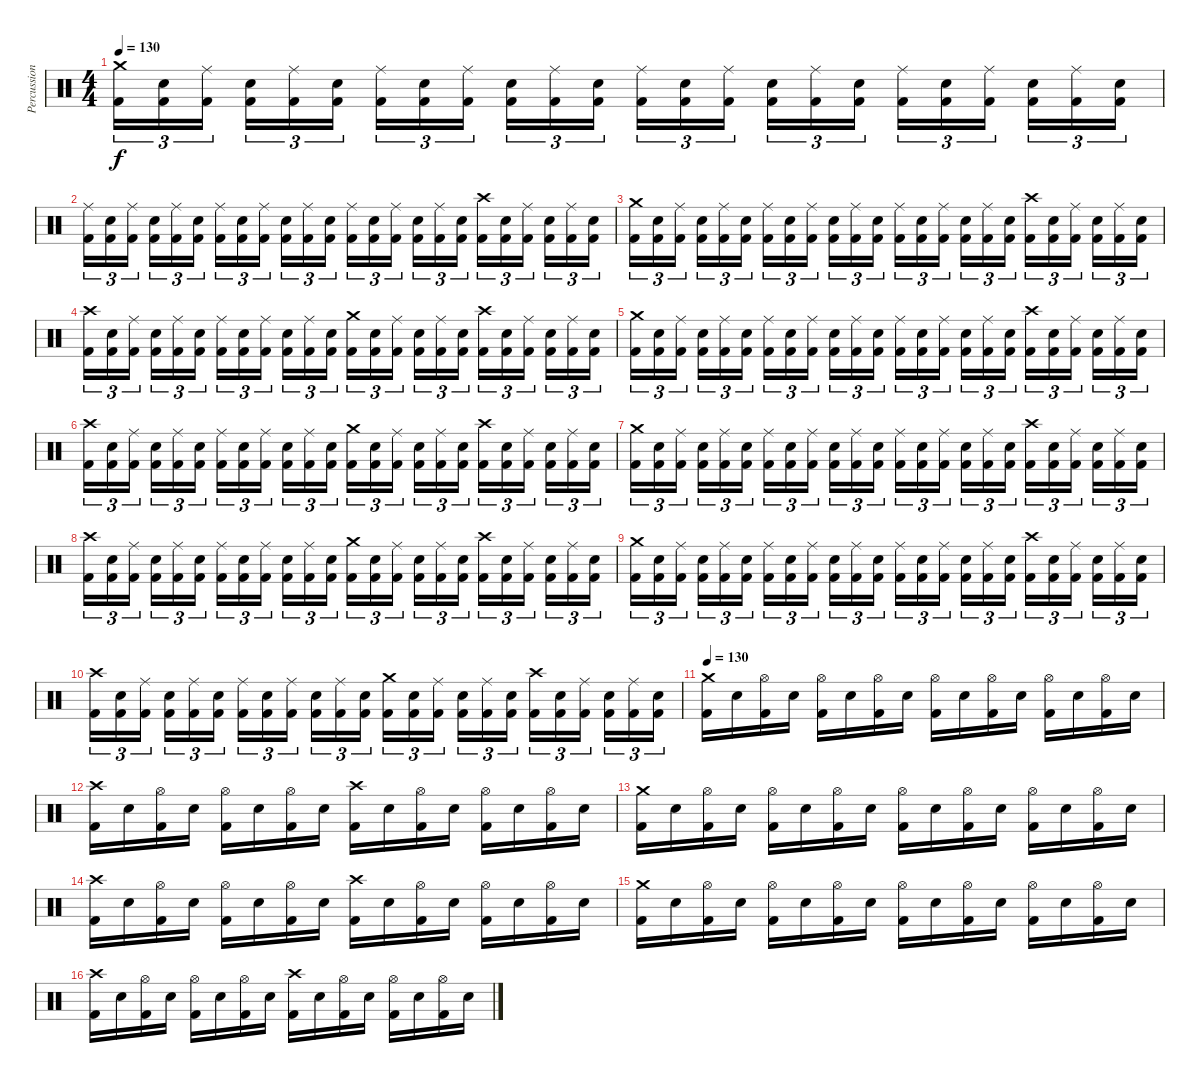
\track ("Percussion" "Percussion") {instrument percussion}
\staff {score}
\articulation defaults
\ts (4 4)
\tempo 130
\clef neutral
\ks c
("Kick (hit) 2" "Crash medium (hit)").16{tu (3 2) dy f} ("Kick (hit) 2" "Electric Snare (hit)").16{tu (3 2)} ("Kick (hit) 2" "Ride (middle)").16{tu (3 2)} ("Kick (hit) 2" "Electric Snare (hit)").16{tu (3 2)} ("Kick (hit) 2" "Ride (middle)").16{tu (3 2)} ("Kick (hit) 2" "Electric Snare (hit)").16{tu (3 2)} ("Kick (hit) 2" "Ride (middle)").16{tu (3 2)} ("Kick (hit) 2" "Electric Snare (hit)").16{tu (3 2)} ("Kick (hit) 2" "Ride (middle)").16{tu (3 2)} ("Kick (hit) 2" "Electric Snare (hit)").16{tu (3 2)} ("Kick (hit) 2" "Ride (middle)").16{tu (3 2)} ("Kick (hit) 2" "Electric Snare (hit)").16{tu (3 2)} ("Kick (hit) 2" "Ride (middle)").16{tu (3 2)} ("Kick (hit) 2" "Electric Snare (hit)").16{tu (3 2)} ("Kick (hit) 2" "Ride (middle)").16{tu (3 2)} ("Kick (hit) 2" "Electric Snare (hit)").16{tu (3 2)} ("Kick (hit) 2" "Ride (middle)").16{tu (3 2)} ("Kick (hit) 2" "Electric Snare (hit)").16{tu (3 2)} ("Kick (hit) 2" "Ride (middle)").16{tu (3 2)} ("Kick (hit) 2" "Electric Snare (hit)").16{tu (3 2)} ("Kick (hit) 2" "Ride (middle)").16{tu (3 2)} ("Kick (hit) 2" "Electric Snare (hit)").16{tu (3 2)} ("Kick (hit) 2" "Ride (middle)").16{tu (3 2)} ("Kick (hit) 2" "Electric Snare (hit)").16{tu (3 2)} |
("Kick (hit) 2" "Ride (middle)").16{tu (3 2)} ("Kick (hit) 2" "Electric Snare (hit)").16{tu (3 2)} ("Kick (hit) 2" "Ride (middle)").16{tu (3 2)} ("Kick (hit) 2" "Electric Snare (hit)").16{tu (3 2)} ("Kick (hit) 2" "Ride (middle)").16{tu (3 2)} ("Kick (hit) 2" "Electric Snare (hit)").16{tu (3 2)} ("Kick (hit) 2" "Ride (middle)").16{tu (3 2)} ("Kick (hit) 2" "Electric Snare (hit)").16{tu (3 2)} ("Kick (hit) 2" "Ride (middle)").16{tu (3 2)} ("Kick (hit) 2" "Electric Snare (hit)").16{tu (3 2)} ("Kick (hit) 2" "Ride (middle)").16{tu (3 2)} ("Kick (hit) 2" "Electric Snare (hit)").16{tu (3 2)} ("Kick (hit) 2" "Ride (middle)").16{tu (3 2)} ("Kick (hit) 2" "Electric Snare (hit)").16{tu (3 2)} ("Kick (hit) 2" "Ride (middle)").16{tu (3 2)} ("Kick (hit) 2" "Electric Snare (hit)").16{tu (3 2)} ("Kick (hit) 2" "Ride (middle)").16{tu (3 2)} ("Kick (hit) 2" "Electric Snare (hit)").16{tu (3 2)} ("Kick (hit) 2" "Crash high (hit)").16{tu (3 2)} ("Kick (hit) 2" "Electric Snare (hit)").16{tu (3 2)} ("Kick (hit) 2" "Ride (middle)").16{tu (3 2)} ("Kick (hit) 2" "Electric Snare (hit)").16{tu (3 2)} ("Kick (hit) 2" "Ride (middle)").16{tu (3 2)} ("Kick (hit) 2" "Electric Snare (hit)").16{tu (3 2)} |
("Kick (hit) 2" "Crash medium (hit)").16{tu (3 2)} ("Kick (hit) 2" "Electric Snare (hit)").16{tu (3 2)} ("Kick (hit) 2" "Ride (middle)").16{tu (3 2)} ("Kick (hit) 2" "Electric Snare (hit)").16{tu (3 2)} ("Kick (hit) 2" "Ride (middle)").16{tu (3 2)} ("Kick (hit) 2" "Electric Snare (hit)").16{tu (3 2)} ("Kick (hit) 2" "Ride (middle)").16{tu (3 2)} ("Kick (hit) 2" "Electric Snare (hit)").16{tu (3 2)} ("Kick (hit) 2" "Ride (middle)").16{tu (3 2)} ("Kick (hit) 2" "Electric Snare (hit)").16{tu (3 2)} ("Kick (hit) 2" "Ride (middle)").16{tu (3 2)} ("Kick (hit) 2" "Electric Snare (hit)").16{tu (3 2)} ("Kick (hit) 2" "Ride (middle)").16{tu (3 2)} ("Kick (hit) 2" "Electric Snare (hit)").16{tu (3 2)} ("Kick (hit) 2" "Ride (middle)").16{tu (3 2)} ("Kick (hit) 2" "Electric Snare (hit)").16{tu (3 2)} ("Kick (hit) 2" "Ride (middle)").16{tu (3 2)} ("Kick (hit) 2" "Electric Snare (hit)").16{tu (3 2)} ("Kick (hit) 2" "Crash high (hit)").16{tu (3 2)} ("Kick (hit) 2" "Electric Snare (hit)").16{tu (3 2)} ("Kick (hit) 2" "Ride (middle)").16{tu (3 2)} ("Kick (hit) 2" "Electric Snare (hit)").16{tu (3 2)} ("Kick (hit) 2" "Ride (middle)").16{tu (3 2)} ("Kick (hit) 2" "Electric Snare (hit)").16{tu (3 2)} |
("Kick (hit) 2" "Crash high (hit)").16{tu (3 2)} ("Kick (hit) 2" "Electric Snare (hit)").16{tu (3 2)} ("Kick (hit) 2" "Ride (middle)").16{tu (3 2)} ("Kick (hit) 2" "Electric Snare (hit)").16{tu (3 2)} ("Kick (hit) 2" "Ride (middle)").16{tu (3 2)} ("Kick (hit) 2" "Electric Snare (hit)").16{tu (3 2)} ("Kick (hit) 2" "Ride (middle)").16{tu (3 2)} ("Kick (hit) 2" "Electric Snare (hit)").16{tu (3 2)} ("Kick (hit) 2" "Ride (middle)").16{tu (3 2)} ("Kick (hit) 2" "Electric Snare (hit)").16{tu (3 2)} ("Kick (hit) 2" "Ride (middle)").16{tu (3 2)} ("Kick (hit) 2" "Electric Snare (hit)").16{tu (3 2)} ("Kick (hit) 2" "Crash medium (hit)").16{tu (3 2)} ("Kick (hit) 2" "Electric Snare (hit)").16{tu (3 2)} ("Kick (hit) 2" "Ride (middle)").16{tu (3 2)} ("Kick (hit) 2" "Electric Snare (hit)").16{tu (3 2)} ("Kick (hit) 2" "Ride (middle)").16{tu (3 2)} ("Kick (hit) 2" "Electric Snare (hit)").16{tu (3 2)} ("Kick (hit) 2" "Crash high (hit)").16{tu (3 2)} ("Kick (hit) 2" "Electric Snare (hit)").16{tu (3 2)} ("Kick (hit) 2" "Ride (middle)").16{tu (3 2)} ("Kick (hit) 2" "Electric Snare (hit)").16{tu (3 2)} ("Kick (hit) 2" "Ride (middle)").16{tu (3 2)} ("Kick (hit) 2" "Electric Snare (hit)").16{tu (3 2)} |
("Kick (hit) 2" "Crash medium (hit)").16{tu (3 2)} ("Kick (hit) 2" "Electric Snare (hit)").16{tu (3 2)} ("Kick (hit) 2" "Ride (middle)").16{tu (3 2)} ("Kick (hit) 2" "Electric Snare (hit)").16{tu (3 2)} ("Kick (hit) 2" "Ride (middle)").16{tu (3 2)} ("Kick (hit) 2" "Electric Snare (hit)").16{tu (3 2)} ("Kick (hit) 2" "Ride (middle)").16{tu (3 2)} ("Kick (hit) 2" "Electric Snare (hit)").16{tu (3 2)} ("Kick (hit) 2" "Ride (middle)").16{tu (3 2)} ("Kick (hit) 2" "Electric Snare (hit)").16{tu (3 2)} ("Kick (hit) 2" "Ride (middle)").16{tu (3 2)} ("Kick (hit) 2" "Electric Snare (hit)").16{tu (3 2)} ("Kick (hit) 2" "Ride (middle)").16{tu (3 2)} ("Kick (hit) 2" "Electric Snare (hit)").16{tu (3 2)} ("Kick (hit) 2" "Ride (middle)").16{tu (3 2)} ("Kick (hit) 2" "Electric Snare (hit)").16{tu (3 2)} ("Kick (hit) 2" "Ride (middle)").16{tu (3 2)} ("Kick (hit) 2" "Electric Snare (hit)").16{tu (3 2)} ("Kick (hit) 2" "Crash high (hit)").16{tu (3 2)} ("Kick (hit) 2" "Electric Snare (hit)").16{tu (3 2)} ("Kick (hit) 2" "Ride (middle)").16{tu (3 2)} ("Kick (hit) 2" "Electric Snare (hit)").16{tu (3 2)} ("Kick (hit) 2" "Ride (middle)").16{tu (3 2)} ("Kick (hit) 2" "Electric Snare (hit)").16{tu (3 2)} |
("Kick (hit) 2" "Crash high (hit)").16{tu (3 2)} ("Kick (hit) 2" "Electric Snare (hit)").16{tu (3 2)} ("Kick (hit) 2" "Ride (middle)").16{tu (3 2)} ("Kick (hit) 2" "Electric Snare (hit)").16{tu (3 2)} ("Kick (hit) 2" "Ride (middle)").16{tu (3 2)} ("Kick (hit) 2" "Electric Snare (hit)").16{tu (3 2)} ("Kick (hit) 2" "Ride (middle)").16{tu (3 2)} ("Kick (hit) 2" "Electric Snare (hit)").16{tu (3 2)} ("Kick (hit) 2" "Ride (middle)").16{tu (3 2)} ("Kick (hit) 2" "Electric Snare (hit)").16{tu (3 2)} ("Kick (hit) 2" "Ride (middle)").16{tu (3 2)} ("Kick (hit) 2" "Electric Snare (hit)").16{tu (3 2)} ("Kick (hit) 2" "Crash medium (hit)").16{tu (3 2)} ("Kick (hit) 2" "Electric Snare (hit)").16{tu (3 2)} ("Kick (hit) 2" "Ride (middle)").16{tu (3 2)} ("Kick (hit) 2" "Electric Snare (hit)").16{tu (3 2)} ("Kick (hit) 2" "Ride (middle)").16{tu (3 2)} ("Kick (hit) 2" "Electric Snare (hit)").16{tu (3 2)} ("Kick (hit) 2" "Crash high (hit)").16{tu (3 2)} ("Kick (hit) 2" "Electric Snare (hit)").16{tu (3 2)} ("Kick (hit) 2" "Ride (middle)").16{tu (3 2)} ("Kick (hit) 2" "Electric Snare (hit)").16{tu (3 2)} ("Kick (hit) 2" "Ride (middle)").16{tu (3 2)} ("Kick (hit) 2" "Electric Snare (hit)").16{tu (3 2)} |
("Kick (hit) 2" "Crash medium (hit)").16{tu (3 2)} ("Kick (hit) 2" "Electric Snare (hit)").16{tu (3 2)} ("Kick (hit) 2" "Ride (middle)").16{tu (3 2)} ("Kick (hit) 2" "Electric Snare (hit)").16{tu (3 2)} ("Kick (hit) 2" "Ride (middle)").16{tu (3 2)} ("Kick (hit) 2" "Electric Snare (hit)").16{tu (3 2)} ("Kick (hit) 2" "Ride (middle)").16{tu (3 2)} ("Kick (hit) 2" "Electric Snare (hit)").16{tu (3 2)} ("Kick (hit) 2" "Ride (middle)").16{tu (3 2)} ("Kick (hit) 2" "Electric Snare (hit)").16{tu (3 2)} ("Kick (hit) 2" "Ride (middle)").16{tu (3 2)} ("Kick (hit) 2" "Electric Snare (hit)").16{tu (3 2)} ("Kick (hit) 2" "Ride (middle)").16{tu (3 2)} ("Kick (hit) 2" "Electric Snare (hit)").16{tu (3 2)} ("Kick (hit) 2" "Ride (middle)").16{tu (3 2)} ("Kick (hit) 2" "Electric Snare (hit)").16{tu (3 2)} ("Kick (hit) 2" "Ride (middle)").16{tu (3 2)} ("Kick (hit) 2" "Electric Snare (hit)").16{tu (3 2)} ("Kick (hit) 2" "Crash high (hit)").16{tu (3 2)} ("Kick (hit) 2" "Electric Snare (hit)").16{tu (3 2)} ("Kick (hit) 2" "Ride (middle)").16{tu (3 2)} ("Kick (hit) 2" "Electric Snare (hit)").16{tu (3 2)} ("Kick (hit) 2" "Ride (middle)").16{tu (3 2)} ("Kick (hit) 2" "Electric Snare (hit)").16{tu (3 2)} |
("Kick (hit) 2" "Crash high (hit)").16{tu (3 2)} ("Kick (hit) 2" "Electric Snare (hit)").16{tu (3 2)} ("Kick (hit) 2" "Ride (middle)").16{tu (3 2)} ("Kick (hit) 2" "Electric Snare (hit)").16{tu (3 2)} ("Kick (hit) 2" "Ride (middle)").16{tu (3 2)} ("Kick (hit) 2" "Electric Snare (hit)").16{tu (3 2)} ("Kick (hit) 2" "Ride (middle)").16{tu (3 2)} ("Kick (hit) 2" "Electric Snare (hit)").16{tu (3 2)} ("Kick (hit) 2" "Ride (middle)").16{tu (3 2)} ("Kick (hit) 2" "Electric Snare (hit)").16{tu (3 2)} ("Kick (hit) 2" "Ride (middle)").16{tu (3 2)} ("Kick (hit) 2" "Electric Snare (hit)").16{tu (3 2)} ("Kick (hit) 2" "Crash medium (hit)").16{tu (3 2)} ("Kick (hit) 2" "Electric Snare (hit)").16{tu (3 2)} ("Kick (hit) 2" "Ride (middle)").16{tu (3 2)} ("Kick (hit) 2" "Electric Snare (hit)").16{tu (3 2)} ("Kick (hit) 2" "Ride (middle)").16{tu (3 2)} ("Kick (hit) 2" "Electric Snare (hit)").16{tu (3 2)} ("Kick (hit) 2" "Crash high (hit)").16{tu (3 2)} ("Kick (hit) 2" "Electric Snare (hit)").16{tu (3 2)} ("Kick (hit) 2" "Ride (middle)").16{tu (3 2)} ("Kick (hit) 2" "Electric Snare (hit)").16{tu (3 2)} ("Kick (hit) 2" "Ride (middle)").16{tu (3 2)} ("Kick (hit) 2" "Electric Snare (hit)").16{tu (3 2)} |
("Kick (hit) 2" "Crash medium (hit)").16{tu (3 2)} ("Kick (hit) 2" "Electric Snare (hit)").16{tu (3 2)} ("Kick (hit) 2" "Ride (middle)").16{tu (3 2)} ("Kick (hit) 2" "Electric Snare (hit)").16{tu (3 2)} ("Kick (hit) 2" "Ride (middle)").16{tu (3 2)} ("Kick (hit) 2" "Electric Snare (hit)").16{tu (3 2)} ("Kick (hit) 2" "Ride (middle)").16{tu (3 2)} ("Kick (hit) 2" "Electric Snare (hit)").16{tu (3 2)} ("Kick (hit) 2" "Ride (middle)").16{tu (3 2)} ("Kick (hit) 2" "Electric Snare (hit)").16{tu (3 2)} ("Kick (hit) 2" "Ride (middle)").16{tu (3 2)} ("Kick (hit) 2" "Electric Snare (hit)").16{tu (3 2)} ("Kick (hit) 2" "Ride (middle)").16{tu (3 2)} ("Kick (hit) 2" "Electric Snare (hit)").16{tu (3 2)} ("Kick (hit) 2" "Ride (middle)").16{tu (3 2)} ("Kick (hit) 2" "Electric Snare (hit)").16{tu (3 2)} ("Kick (hit) 2" "Ride (middle)").16{tu (3 2)} ("Kick (hit) 2" "Electric Snare (hit)").16{tu (3 2)} ("Kick (hit) 2" "Crash high (hit)").16{tu (3 2)} ("Kick (hit) 2" "Electric Snare (hit)").16{tu (3 2)} ("Kick (hit) 2" "Ride (middle)").16{tu (3 2)} ("Kick (hit) 2" "Electric Snare (hit)").16{tu (3 2)} ("Kick (hit) 2" "Ride (middle)").16{tu (3 2)} ("Kick (hit) 2" "Electric Snare (hit)").16{tu (3 2)} |
("Kick (hit) 2" "Crash high (hit)").16{tu (3 2)} ("Kick (hit) 2" "Electric Snare (hit)").16{tu (3 2)} ("Kick (hit) 2" "Ride (middle)").16{tu (3 2)} ("Kick (hit) 2" "Electric Snare (hit)").16{tu (3 2)} ("Kick (hit) 2" "Ride (middle)").16{tu (3 2)} ("Kick (hit) 2" "Electric Snare (hit)").16{tu (3 2)} ("Kick (hit) 2" "Ride (middle)").16{tu (3 2)} ("Kick (hit) 2" "Electric Snare (hit)").16{tu (3 2)} ("Kick (hit) 2" "Ride (middle)").16{tu (3 2)} ("Kick (hit) 2" "Electric Snare (hit)").16{tu (3 2)} ("Kick (hit) 2" "Ride (middle)").16{tu (3 2)} ("Kick (hit) 2" "Electric Snare (hit)").16{tu (3 2)} ("Kick (hit) 2" "Crash medium (hit)").16{tu (3 2)} ("Kick (hit) 2" "Electric Snare (hit)").16{tu (3 2)} ("Kick (hit) 2" "Ride (middle)").16{tu (3 2)} ("Kick (hit) 2" "Electric Snare (hit)").16{tu (3 2)} ("Kick (hit) 2" "Ride (middle)").16{tu (3 2)} ("Kick (hit) 2" "Electric Snare (hit)").16{tu (3 2)} ("Kick (hit) 2" "Crash high (hit)").16{tu (3 2)} ("Kick (hit) 2" "Electric Snare (hit)").16{tu (3 2)} ("Kick (hit) 2" "Ride (middle)").16{tu (3 2)} ("Kick (hit) 2" "Electric Snare (hit)").16{tu (3 2)} ("Kick (hit) 2" "Ride (middle)").16{tu (3 2)} ("Kick (hit) 2" "Electric Snare (hit)").16{tu (3 2)} |
\tempo 130
("Kick (hit) 2" "Crash medium (hit)").16 "Electric Snare (hit)".16 ("Kick (hit) 2" "Hi-Hat (open)").16 "Electric Snare (hit)".16 ("Kick (hit) 2" "Hi-Hat (open)").16 "Electric Snare (hit)".16 ("Kick (hit) 2" "Hi-Hat (open)").16 "Electric Snare (hit)".16 ("Kick (hit) 2" "Hi-Hat (open)").16 "Electric Snare (hit)".16 ("Kick (hit) 2" "Hi-Hat (open)").16 "Electric Snare (hit)".16 ("Kick (hit) 2" "Hi-Hat (open)").16 "Electric Snare (hit)".16 ("Kick (hit) 2" "Hi-Hat (open)").16 "Electric Snare (hit)".16 |
("Kick (hit) 2" "Crash high (hit)").16 "Electric Snare (hit)".16 ("Kick (hit) 2" "Hi-Hat (open)").16 "Electric Snare (hit)".16 ("Kick (hit) 2" "Hi-Hat (open)").16 "Electric Snare (hit)".16 ("Kick (hit) 2" "Hi-Hat (open)").16 "Electric Snare (hit)".16 ("Kick (hit) 2" "Crash high (hit)").16 "Electric Snare (hit)".16 ("Kick (hit) 2" "Hi-Hat (open)").16 "Electric Snare (hit)".16 ("Kick (hit) 2" "Hi-Hat (open)").16 "Electric Snare (hit)".16 ("Kick (hit) 2" "Hi-Hat (open)").16 "Electric Snare (hit)".16 |
("Kick (hit) 2" "Crash medium (hit)").16 "Electric Snare (hit)".16 ("Kick (hit) 2" "Hi-Hat (open)").16 "Electric Snare (hit)".16 ("Kick (hit) 2" "Hi-Hat (open)").16 "Electric Snare (hit)".16 ("Kick (hit) 2" "Hi-Hat (open)").16 "Electric Snare (hit)".16 ("Kick (hit) 2" "Hi-Hat (open)").16 "Electric Snare (hit)".16 ("Kick (hit) 2" "Hi-Hat (open)").16 "Electric Snare (hit)".16 ("Kick (hit) 2" "Hi-Hat (open)").16 "Electric Snare (hit)".16 ("Kick (hit) 2" "Hi-Hat (open)").16 "Electric Snare (hit)".16 |
("Kick (hit) 2" "Crash high (hit)").16 "Electric Snare (hit)".16 ("Kick (hit) 2" "Hi-Hat (open)").16 "Electric Snare (hit)".16 ("Kick (hit) 2" "Hi-Hat (open)").16 "Electric Snare (hit)".16 ("Kick (hit) 2" "Hi-Hat (open)").16 "Electric Snare (hit)".16 ("Kick (hit) 2" "Crash high (hit)").16 "Electric Snare (hit)".16 ("Kick (hit) 2" "Hi-Hat (open)").16 "Electric Snare (hit)".16 ("Kick (hit) 2" "Hi-Hat (open)").16 "Electric Snare (hit)".16 ("Kick (hit) 2" "Hi-Hat (open)").16 "Electric Snare (hit)".16 |
("Kick (hit) 2" "Crash medium (hit)").16 "Electric Snare (hit)".16 ("Kick (hit) 2" "Hi-Hat (open)").16 "Electric Snare (hit)".16 ("Kick (hit) 2" "Hi-Hat (open)").16 "Electric Snare (hit)".16 ("Kick (hit) 2" "Hi-Hat (open)").16 "Electric Snare (hit)".16 ("Kick (hit) 2" "Hi-Hat (open)").16 "Electric Snare (hit)".16 ("Kick (hit) 2" "Hi-Hat (open)").16 "Electric Snare (hit)".16 ("Kick (hit) 2" "Hi-Hat (open)").16 "Electric Snare (hit)".16 ("Kick (hit) 2" "Hi-Hat (open)").16 "Electric Snare (hit)".16 |
("Kick (hit) 2" "Crash high (hit)").16 "Electric Snare (hit)".16 ("Kick (hit) 2" "Hi-Hat (open)").16 "Electric Snare (hit)".16 ("Kick (hit) 2" "Hi-Hat (open)").16 "Electric Snare (hit)".16 ("Kick (hit) 2" "Hi-Hat (open)").16 "Electric Snare (hit)".16 ("Kick (hit) 2" "Crash high (hit)").16 "Electric Snare (hit)".16 ("Kick (hit) 2" "Hi-Hat (open)").16 "Electric Snare (hit)".16 ("Kick (hit) 2" "Hi-Hat (open)").16 "Electric Snare (hit)".16 ("Kick (hit) 2" "Hi-Hat (open)").16 "Electric Snare (hit)".16
